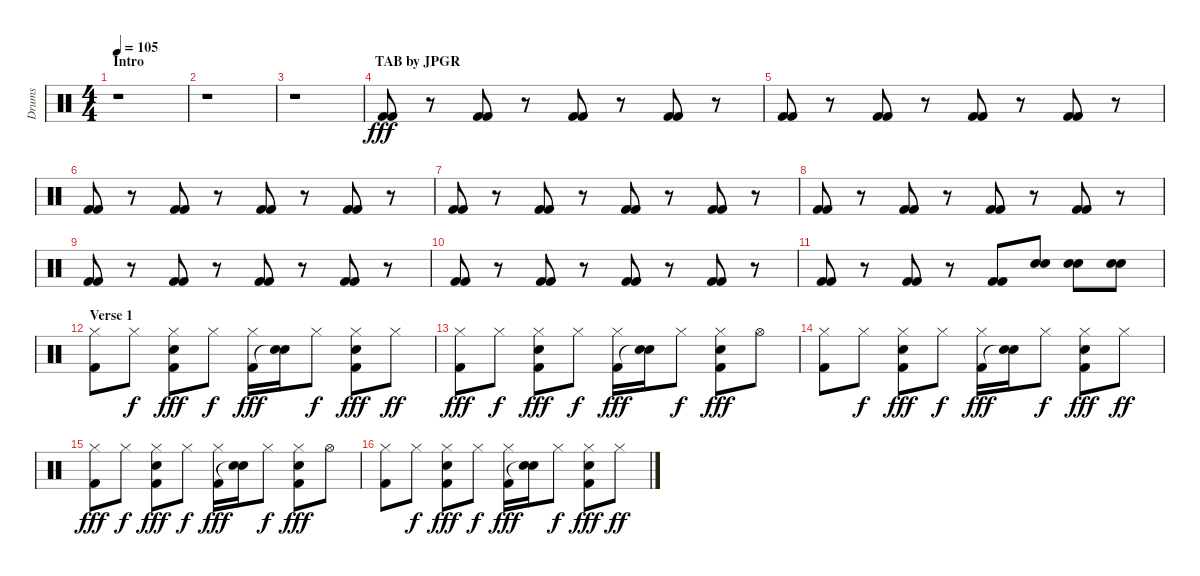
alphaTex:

\track ("Drums" "Drums") {instrument percussion}
\staff {score}
\articulation defaults
\ts (4 4)
\section ("" "Intro                                                                  TAB by JPGR")
\tempo 105
\clef neutral
\ks c
r.1{dy fff} |
r.1 |
r.1 |
("Kick (hit) 2" "Kick (hit) 2").8{volume 16} r.8 ("Kick (hit) 2" "Kick (hit) 2").8 r.8 ("Kick (hit) 2" "Kick (hit) 2").8 r.8 ("Kick (hit) 2" "Kick (hit) 2").8 r.8 |
("Kick (hit) 2" "Kick (hit) 2").8 r.8 ("Kick (hit) 2" "Kick (hit) 2").8 r.8 ("Kick (hit) 2" "Kick (hit) 2").8 r.8 ("Kick (hit) 2" "Kick (hit) 2").8 r.8 |
("Kick (hit) 2" "Kick (hit) 2").8 r.8 ("Kick (hit) 2" "Kick (hit) 2").8 r.8 ("Kick (hit) 2" "Kick (hit) 2").8 r.8 ("Kick (hit) 2" "Kick (hit) 2").8 r.8 |
("Kick (hit) 2" "Kick (hit) 2").8 r.8 ("Kick (hit) 2" "Kick (hit) 2").8 r.8 ("Kick (hit) 2" "Kick (hit) 2").8 r.8 ("Kick (hit) 2" "Kick (hit) 2").8 r.8 |
("Kick (hit) 2" "Kick (hit) 2").8 r.8 ("Kick (hit) 2" "Kick (hit) 2").8 r.8 ("Kick (hit) 2" "Kick (hit) 2").8 r.8 ("Kick (hit) 2" "Kick (hit) 2").8 r.8 |
("Kick (hit) 2" "Kick (hit) 2").8 r.8 ("Kick (hit) 2" "Kick (hit) 2").8 r.8 ("Kick (hit) 2" "Kick (hit) 2").8 r.8 ("Kick (hit) 2" "Kick (hit) 2").8 r.8 |
("Kick (hit) 2" "Kick (hit) 2").8 r.8 ("Kick (hit) 2" "Kick (hit) 2").8 r.8 ("Kick (hit) 2" "Kick (hit) 2").8 r.8 ("Kick (hit) 2" "Kick (hit) 2").8 r.8 |
("Kick (hit) 2" "Kick (hit) 2").8 r.8 ("Kick (hit) 2" "Kick (hit) 2").8 r.8 ("Kick (hit) 2" "Kick (hit) 2").8 ("Electric Snare (hit)" "Electric Snare (hit)").8 ("Electric Snare (hit)" "Electric Snare (hit)").8 ("Electric Snare (hit)" "Electric Snare (hit)").8 |
\section ("" "Verse 1")
("Hi-Hat (closed)" "Kick (hit) 2").8 "Hi-Hat (closed)".8{dy f} ("Hi-Hat (closed)" "Electric Snare (hit)" "Kick (hit) 2").8{dy fff} "Hi-Hat (closed)".8{dy f} ("Hi-Hat (closed)" "Kick (hit) 2").16{dy fff} ("Electric Snare (hit)" "Snare (hit)"{t}).16 "Hi-Hat (closed)".8{dy f} ("Hi-Hat (closed)" "Electric Snare (hit)" "Kick (hit) 2").8{dy fff} "Hi-Hat (closed)".8{dy ff} |
("Hi-Hat (closed)" "Kick (hit) 2").8{dy fff} "Hi-Hat (closed)".8{dy f} ("Hi-Hat (closed)" "Electric Snare (hit)" "Kick (hit) 2").8{dy fff} "Hi-Hat (closed)".8{dy f} ("Hi-Hat (closed)" "Kick (hit) 2").16{dy fff} ("Electric Snare (hit)" "Snare (hit)"{t}).16 "Hi-Hat (closed)".8{dy f} ("Hi-Hat (closed)" "Electric Snare (hit)" "Kick (hit) 2").8{dy fff} "Hi-Hat (open)".8 |
("Hi-Hat (closed)" "Kick (hit) 2").8 "Hi-Hat (closed)".8{dy f} ("Hi-Hat (closed)" "Electric Snare (hit)" "Kick (hit) 2").8{dy fff} "Hi-Hat (closed)".8{dy f} ("Hi-Hat (closed)" "Kick (hit) 2").16{dy fff} ("Electric Snare (hit)" "Snare (hit)"{t}).16 "Hi-Hat (closed)".8{dy f} ("Hi-Hat (closed)" "Electric Snare (hit)" "Kick (hit) 2").8{dy fff} "Hi-Hat (closed)".8{dy ff} |
("Hi-Hat (closed)" "Kick (hit) 2").8{dy fff} "Hi-Hat (closed)".8{dy f} ("Hi-Hat (closed)" "Electric Snare (hit)" "Kick (hit) 2").8{dy fff} "Hi-Hat (closed)".8{dy f} ("Hi-Hat (closed)" "Kick (hit) 2").16{dy fff} ("Electric Snare (hit)" "Snare (hit)"{t}).16 "Hi-Hat (closed)".8{dy f} ("Hi-Hat (closed)" "Electric Snare (hit)" "Kick (hit) 2").8{dy fff} "Hi-Hat (open)".8 |
("Hi-Hat (closed)" "Kick (hit) 2").8 "Hi-Hat (closed)".8{dy f} ("Hi-Hat (closed)" "Electric Snare (hit)" "Kick (hit) 2").8{dy fff} "Hi-Hat (closed)".8{dy f} ("Hi-Hat (closed)" "Kick (hit) 2").16{dy fff} ("Electric Snare (hit)" "Snare (hit)"{t}).16 "Hi-Hat (closed)".8{dy f} ("Hi-Hat (closed)" "Electric Snare (hit)" "Kick (hit) 2").8{dy fff} "Hi-Hat (closed)".8{dy ff}
